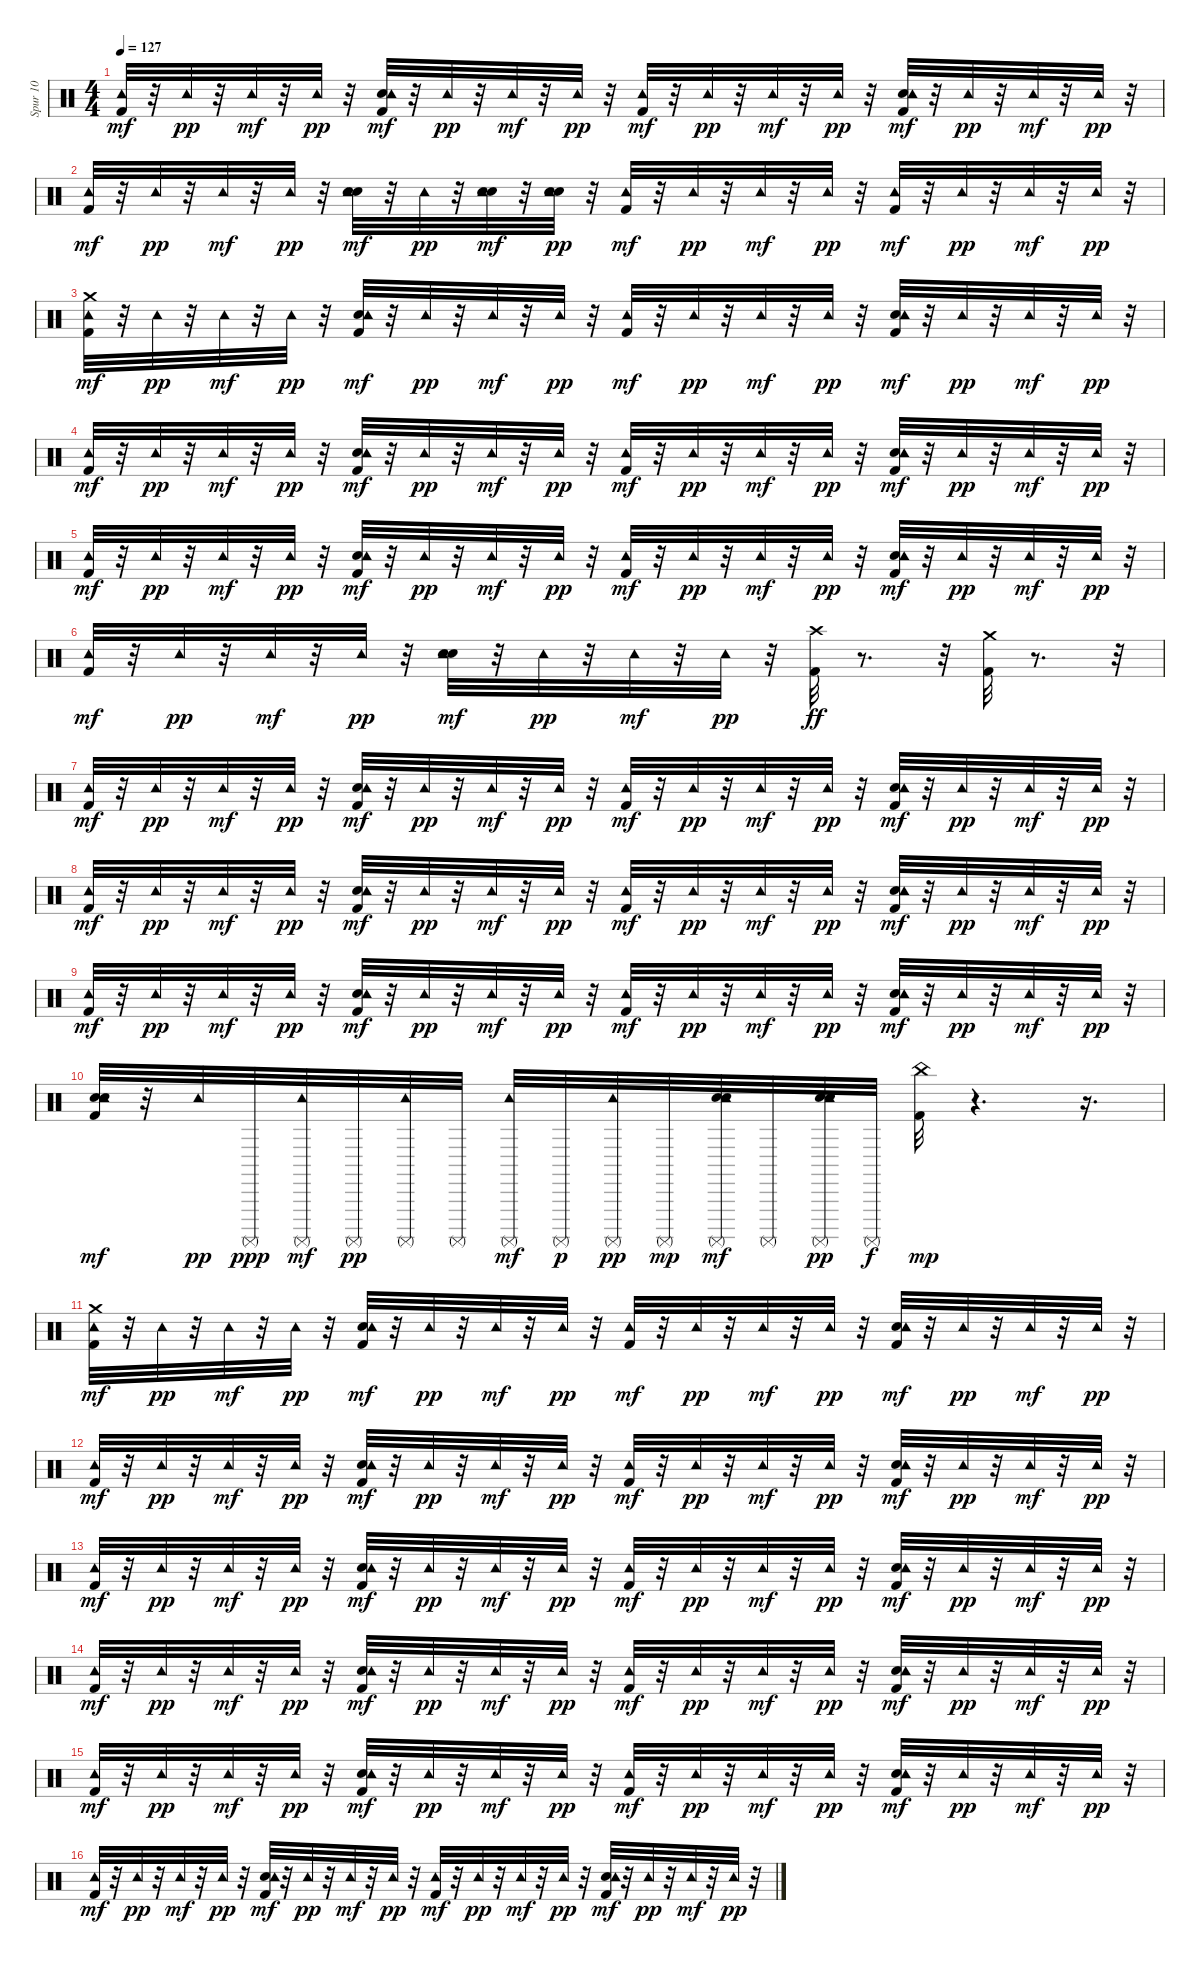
\track ("Spur 10" "Spur 10") {instrument percussion}
\staff {score}
\articulation defaults
\ts (4 4)
\tempo 127
\clef neutral
\ks c
("Kick (hit) 2" "Tambourine (hit)").32{dy mf} r.32 "Tambourine (hit)".32{dy pp} r.32 "Tambourine (hit)".32{dy mf} r.32 "Tambourine (hit)".32{dy pp} r.32 ("Kick (hit) 2" "Snare (hit) 2" "Tambourine (hit)").32{dy mf} r.32 "Tambourine (hit)".32{dy pp} r.32 "Tambourine (hit)".32{dy mf} r.32 "Tambourine (hit)".32{dy pp} r.32 ("Kick (hit) 2" "Tambourine (hit)").32{dy mf} r.32 "Tambourine (hit)".32{dy pp} r.32 "Tambourine (hit)".32{dy mf} r.32 "Tambourine (hit)".32{dy pp} r.32 ("Kick (hit) 2" "Snare (hit) 2" "Tambourine (hit)").32{dy mf} r.32 "Tambourine (hit)".32{dy pp} r.32 "Tambourine (hit)".32{dy mf} r.32 "Tambourine (hit)".32{dy pp} r.32 |
("Kick (hit) 2" "Tambourine (hit)").32{dy mf} r.32 "Tambourine (hit)".32{dy pp} r.32 "Tambourine (hit)".32{dy mf} r.32 "Tambourine (hit)".32{dy pp} r.32 ("Snare (hit) 2" "Electric Snare (hit)" "Tambourine (hit)").32{dy mf} r.32 "Tambourine (hit)".32{dy pp} r.32 ("Snare (hit) 2" "Electric Snare (hit)" "Tambourine (hit)").32{dy mf} r.32 ("Snare (hit) 2" "Electric Snare (hit)" "Tambourine (hit)").32{dy pp} r.32 ("Kick (hit) 2" "Tambourine (hit)").32{dy mf} r.32 "Tambourine (hit)".32{dy pp} r.32 "Tambourine (hit)".32{dy mf} r.32 "Tambourine (hit)".32{dy pp} r.32 ("Kick (hit) 2" "Tambourine (hit)").32{dy mf} r.32 "Tambourine (hit)".32{dy pp} r.32 "Tambourine (hit)".32{dy mf} r.32 "Tambourine (hit)".32{dy pp} r.32 |
("Kick (hit) 2" "Tambourine (hit)" "Crash medium (hit)").32{dy mf} r.32 "Tambourine (hit)".32{dy pp} r.32 "Tambourine (hit)".32{dy mf} r.32 "Tambourine (hit)".32{dy pp} r.32 ("Kick (hit) 2" "Snare (hit) 2" "Tambourine (hit)").32{dy mf} r.32 "Tambourine (hit)".32{dy pp} r.32 "Tambourine (hit)".32{dy mf} r.32 "Tambourine (hit)".32{dy pp} r.32 ("Kick (hit) 2" "Tambourine (hit)").32{dy mf} r.32 "Tambourine (hit)".32{dy pp} r.32 "Tambourine (hit)".32{dy mf} r.32 "Tambourine (hit)".32{dy pp} r.32 ("Kick (hit) 2" "Snare (hit) 2" "Tambourine (hit)").32{dy mf} r.32 "Tambourine (hit)".32{dy pp} r.32 "Tambourine (hit)".32{dy mf} r.32 "Tambourine (hit)".32{dy pp} r.32 |
("Kick (hit) 2" "Tambourine (hit)").32{dy mf} r.32 "Tambourine (hit)".32{dy pp} r.32 "Tambourine (hit)".32{dy mf} r.32 "Tambourine (hit)".32{dy pp} r.32 ("Kick (hit) 2" "Snare (hit) 2" "Tambourine (hit)").32{dy mf} r.32 "Tambourine (hit)".32{dy pp} r.32 "Tambourine (hit)".32{dy mf} r.32 "Tambourine (hit)".32{dy pp} r.32 ("Kick (hit) 2" "Tambourine (hit)").32{dy mf} r.32 "Tambourine (hit)".32{dy pp} r.32 "Tambourine (hit)".32{dy mf} r.32 "Tambourine (hit)".32{dy pp} r.32 ("Kick (hit) 2" "Snare (hit) 2" "Tambourine (hit)").32{dy mf} r.32 "Tambourine (hit)".32{dy pp} r.32 "Tambourine (hit)".32{dy mf} r.32 "Tambourine (hit)".32{dy pp} r.32 |
("Kick (hit) 2" "Tambourine (hit)").32{dy mf} r.32 "Tambourine (hit)".32{dy pp} r.32 "Tambourine (hit)".32{dy mf} r.32 "Tambourine (hit)".32{dy pp} r.32 ("Kick (hit) 2" "Snare (hit) 2" "Tambourine (hit)").32{dy mf} r.32 "Tambourine (hit)".32{dy pp} r.32 "Tambourine (hit)".32{dy mf} r.32 "Tambourine (hit)".32{dy pp} r.32 ("Kick (hit) 2" "Tambourine (hit)").32{dy mf} r.32 "Tambourine (hit)".32{dy pp} r.32 "Tambourine (hit)".32{dy mf} r.32 "Tambourine (hit)".32{dy pp} r.32 ("Kick (hit) 2" "Snare (hit) 2" "Tambourine (hit)").32{dy mf} r.32 "Tambourine (hit)".32{dy pp} r.32 "Tambourine (hit)".32{dy mf} r.32 "Tambourine (hit)".32{dy pp} r.32 |
("Kick (hit) 2" "Tambourine (hit)").32{dy mf} r.32 "Tambourine (hit)".32{dy pp} r.32 "Tambourine (hit)".32{dy mf} r.32 "Tambourine (hit)".32{dy pp} r.32 ("Snare (hit) 2" "Electric Snare (hit)" "Tambourine (hit)").32{dy mf} r.32 "Tambourine (hit)".32{dy pp} r.32 "Tambourine (hit)".32{dy mf} r.32 "Tambourine (hit)".32{dy pp} r.32 ("Kick (hit) 2" "Crash high (hit)").32{dy ff} r.8{d} r.32 ("Kick (hit) 2" "Crash medium (hit)").32 r.8{d} r.32 |
("Kick (hit) 2" "Tambourine (hit)").32{dy mf} r.32 "Tambourine (hit)".32{dy pp} r.32 "Tambourine (hit)".32{dy mf} r.32 "Tambourine (hit)".32{dy pp} r.32 ("Kick (hit) 2" "Snare (hit) 2" "Tambourine (hit)").32{dy mf} r.32 "Tambourine (hit)".32{dy pp} r.32 "Tambourine (hit)".32{dy mf} r.32 "Tambourine (hit)".32{dy pp} r.32 ("Kick (hit) 2" "Tambourine (hit)").32{dy mf} r.32 "Tambourine (hit)".32{dy pp} r.32 "Tambourine (hit)".32{dy mf} r.32 "Tambourine (hit)".32{dy pp} r.32 ("Kick (hit) 2" "Snare (hit) 2" "Tambourine (hit)").32{dy mf} r.32 "Tambourine (hit)".32{dy pp} r.32 "Tambourine (hit)".32{dy mf} r.32 "Tambourine (hit)".32{dy pp} r.32 |
("Kick (hit) 2" "Tambourine (hit)").32{dy mf} r.32 "Tambourine (hit)".32{dy pp} r.32 "Tambourine (hit)".32{dy mf} r.32 "Tambourine (hit)".32{dy pp} r.32 ("Kick (hit) 2" "Snare (hit) 2" "Tambourine (hit)").32{dy mf} r.32 "Tambourine (hit)".32{dy pp} r.32 "Tambourine (hit)".32{dy mf} r.32 "Tambourine (hit)".32{dy pp} r.32 ("Kick (hit) 2" "Tambourine (hit)").32{dy mf} r.32 "Tambourine (hit)".32{dy pp} r.32 "Tambourine (hit)".32{dy mf} r.32 "Tambourine (hit)".32{dy pp} r.32 ("Kick (hit) 2" "Snare (hit) 2" "Tambourine (hit)").32{dy mf} r.32 "Tambourine (hit)".32{dy pp} r.32 "Tambourine (hit)".32{dy mf} r.32 "Tambourine (hit)".32{dy pp} r.32 |
("Kick (hit) 2" "Tambourine (hit)").32{dy mf} r.32 "Tambourine (hit)".32{dy pp} r.32 "Tambourine (hit)".32{dy mf} r.32 "Tambourine (hit)".32{dy pp} r.32 ("Kick (hit) 2" "Snare (hit) 2" "Tambourine (hit)").32{dy mf} r.32 "Tambourine (hit)".32{dy pp} r.32 "Tambourine (hit)".32{dy mf} r.32 "Tambourine (hit)".32{dy pp} r.32 ("Kick (hit) 2" "Tambourine (hit)").32{dy mf} r.32 "Tambourine (hit)".32{dy pp} r.32 "Tambourine (hit)".32{dy mf} r.32 "Tambourine (hit)".32{dy pp} r.32 ("Kick (hit) 2" "Snare (hit) 2" "Tambourine (hit)").32{dy mf} r.32 "Tambourine (hit)".32{dy pp} r.32 "Tambourine (hit)".32{dy mf} r.32 "Tambourine (hit)".32{dy pp} r.32 |
("Kick (hit) 2" "Snare (hit) 2" "Electric Snare (hit)" "Tambourine (hit)").32{dy mf} r.32 "Tambourine (hit)".32{dy pp} "Surdo (mute)".32{dy ppp} ("Surdo (mute)" "Tambourine (hit)").32{dy mf} "Surdo (mute)".32{dy pp} ("Surdo (mute)" "Tambourine (hit)").32 "Surdo (mute)".32 ("Surdo (mute)" "Tambourine (hit)").32{dy mf} "Surdo (mute)".32{dy p} ("Surdo (mute)" "Tambourine (hit)").32{dy pp} "Surdo (mute)".32{dy mp} ("Snare (hit) 2" "Electric Snare (hit)" "Surdo (mute)" "Tambourine (hit)").32{dy mf} "Surdo (mute)".32 ("Snare (hit) 2" "Electric Snare (hit)" "Surdo (mute)" "Tambourine (hit)").32{dy pp} "Surdo (mute)".32{dy f} ("Kick (hit) 2" "China (hit)").32{dy mp} r.4{d} r.16{d} |
("Kick (hit) 2" "Tambourine (hit)" "Crash medium (hit)").32{dy mf} r.32 "Tambourine (hit)".32{dy pp} r.32 "Tambourine (hit)".32{dy mf} r.32 "Tambourine (hit)".32{dy pp} r.32 ("Kick (hit) 2" "Snare (hit) 2" "Tambourine (hit)").32{dy mf} r.32 "Tambourine (hit)".32{dy pp} r.32 "Tambourine (hit)".32{dy mf} r.32 "Tambourine (hit)".32{dy pp} r.32 ("Kick (hit) 2" "Tambourine (hit)").32{dy mf} r.32 "Tambourine (hit)".32{dy pp} r.32 "Tambourine (hit)".32{dy mf} r.32 "Tambourine (hit)".32{dy pp} r.32 ("Kick (hit) 2" "Snare (hit) 2" "Tambourine (hit)").32{dy mf} r.32 "Tambourine (hit)".32{dy pp} r.32 "Tambourine (hit)".32{dy mf} r.32 "Tambourine (hit)".32{dy pp} r.32 |
("Kick (hit) 2" "Tambourine (hit)").32{dy mf} r.32 "Tambourine (hit)".32{dy pp} r.32 "Tambourine (hit)".32{dy mf} r.32 "Tambourine (hit)".32{dy pp} r.32 ("Kick (hit) 2" "Snare (hit) 2" "Tambourine (hit)").32{dy mf} r.32 "Tambourine (hit)".32{dy pp} r.32 "Tambourine (hit)".32{dy mf} r.32 "Tambourine (hit)".32{dy pp} r.32 ("Kick (hit) 2" "Tambourine (hit)").32{dy mf} r.32 "Tambourine (hit)".32{dy pp} r.32 "Tambourine (hit)".32{dy mf} r.32 "Tambourine (hit)".32{dy pp} r.32 ("Kick (hit) 2" "Snare (hit) 2" "Tambourine (hit)").32{dy mf} r.32 "Tambourine (hit)".32{dy pp} r.32 "Tambourine (hit)".32{dy mf} r.32 "Tambourine (hit)".32{dy pp} r.32 |
("Kick (hit) 2" "Tambourine (hit)").32{dy mf} r.32 "Tambourine (hit)".32{dy pp} r.32 "Tambourine (hit)".32{dy mf} r.32 "Tambourine (hit)".32{dy pp} r.32 ("Kick (hit) 2" "Snare (hit) 2" "Tambourine (hit)").32{dy mf} r.32 "Tambourine (hit)".32{dy pp} r.32 "Tambourine (hit)".32{dy mf} r.32 "Tambourine (hit)".32{dy pp} r.32 ("Kick (hit) 2" "Tambourine (hit)").32{dy mf} r.32 "Tambourine (hit)".32{dy pp} r.32 "Tambourine (hit)".32{dy mf} r.32 "Tambourine (hit)".32{dy pp} r.32 ("Kick (hit) 2" "Snare (hit) 2" "Tambourine (hit)").32{dy mf} r.32 "Tambourine (hit)".32{dy pp} r.32 "Tambourine (hit)".32{dy mf} r.32 "Tambourine (hit)".32{dy pp} r.32 |
("Kick (hit) 2" "Tambourine (hit)").32{dy mf} r.32 "Tambourine (hit)".32{dy pp} r.32 "Tambourine (hit)".32{dy mf} r.32 "Tambourine (hit)".32{dy pp} r.32 ("Kick (hit) 2" "Snare (hit) 2" "Tambourine (hit)").32{dy mf} r.32 "Tambourine (hit)".32{dy pp} r.32 "Tambourine (hit)".32{dy mf} r.32 "Tambourine (hit)".32{dy pp} r.32 ("Kick (hit) 2" "Tambourine (hit)").32{dy mf} r.32 "Tambourine (hit)".32{dy pp} r.32 "Tambourine (hit)".32{dy mf} r.32 "Tambourine (hit)".32{dy pp} r.32 ("Kick (hit) 2" "Snare (hit) 2" "Tambourine (hit)").32{dy mf} r.32 "Tambourine (hit)".32{dy pp} r.32 "Tambourine (hit)".32{dy mf} r.32 "Tambourine (hit)".32{dy pp} r.32 |
("Kick (hit) 2" "Tambourine (hit)").32{dy mf} r.32 "Tambourine (hit)".32{dy pp} r.32 "Tambourine (hit)".32{dy mf} r.32 "Tambourine (hit)".32{dy pp} r.32 ("Kick (hit) 2" "Snare (hit) 2" "Tambourine (hit)").32{dy mf} r.32 "Tambourine (hit)".32{dy pp} r.32 "Tambourine (hit)".32{dy mf} r.32 "Tambourine (hit)".32{dy pp} r.32 ("Kick (hit) 2" "Tambourine (hit)").32{dy mf} r.32 "Tambourine (hit)".32{dy pp} r.32 "Tambourine (hit)".32{dy mf} r.32 "Tambourine (hit)".32{dy pp} r.32 ("Kick (hit) 2" "Snare (hit) 2" "Tambourine (hit)").32{dy mf} r.32 "Tambourine (hit)".32{dy pp} r.32 "Tambourine (hit)".32{dy mf} r.32 "Tambourine (hit)".32{dy pp} r.32 |
("Kick (hit) 2" "Tambourine (hit)").32{dy mf} r.32 "Tambourine (hit)".32{dy pp} r.32 "Tambourine (hit)".32{dy mf} r.32 "Tambourine (hit)".32{dy pp} r.32 ("Kick (hit) 2" "Snare (hit) 2" "Tambourine (hit)").32{dy mf} r.32 "Tambourine (hit)".32{dy pp} r.32 "Tambourine (hit)".32{dy mf} r.32 "Tambourine (hit)".32{dy pp} r.32 ("Kick (hit) 2" "Tambourine (hit)").32{dy mf} r.32 "Tambourine (hit)".32{dy pp} r.32 "Tambourine (hit)".32{dy mf} r.32 "Tambourine (hit)".32{dy pp} r.32 ("Kick (hit) 2" "Snare (hit) 2" "Tambourine (hit)").32{dy mf} r.32 "Tambourine (hit)".32{dy pp} r.32 "Tambourine (hit)".32{dy mf} r.32 "Tambourine (hit)".32{dy pp} r.32
